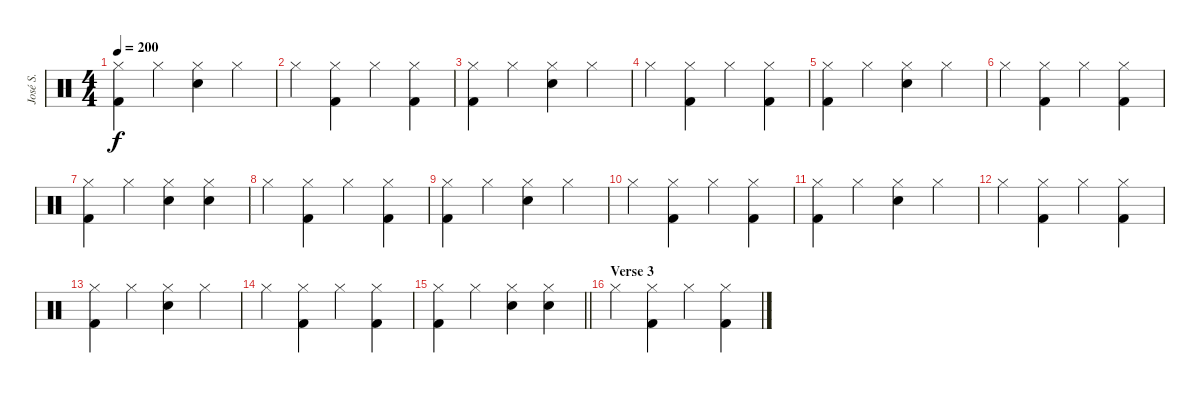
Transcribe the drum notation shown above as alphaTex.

\track ("José S." "José S.") {instrument percussion}
\staff {score}
\articulation defaults
\ts (4 4)
\tempo 200
\clef neutral
\ks c
("Hi-Hat (closed)" "Kick (hit) 2").4{dy f} "Hi-Hat (closed)".4 ("Hi-Hat (closed)" "Snare (hit) 2").4 "Hi-Hat (closed)".4 |
"Hi-Hat (closed)".4 ("Hi-Hat (closed)" "Kick (hit) 2").4 "Hi-Hat (closed)".4 ("Hi-Hat (closed)" "Kick (hit) 2").4 |
("Hi-Hat (closed)" "Kick (hit) 2").4 "Hi-Hat (closed)".4 ("Hi-Hat (closed)" "Snare (hit) 2").4 "Hi-Hat (closed)".4 |
"Hi-Hat (closed)".4 ("Hi-Hat (closed)" "Kick (hit) 2").4 "Hi-Hat (closed)".4 ("Hi-Hat (closed)" "Kick (hit) 2").4 |
("Hi-Hat (closed)" "Kick (hit) 2").4 "Hi-Hat (closed)".4 ("Hi-Hat (closed)" "Snare (hit) 2").4 "Hi-Hat (closed)".4 |
"Hi-Hat (closed)".4 ("Hi-Hat (closed)" "Kick (hit) 2").4 "Hi-Hat (closed)".4 ("Hi-Hat (closed)" "Kick (hit) 2").4 |
("Hi-Hat (closed)" "Kick (hit) 2").4 "Hi-Hat (closed)".4 ("Hi-Hat (closed)" "Snare (hit) 2").4 ("Hi-Hat (closed)" "Snare (hit) 2").4 |
"Hi-Hat (closed)".4 ("Hi-Hat (closed)" "Kick (hit) 2").4 "Hi-Hat (closed)".4 ("Hi-Hat (closed)" "Kick (hit) 2").4 |
("Hi-Hat (closed)" "Kick (hit) 2").4 "Hi-Hat (closed)".4 ("Hi-Hat (closed)" "Snare (hit) 2").4 "Hi-Hat (closed)".4 |
"Hi-Hat (closed)".4 ("Hi-Hat (closed)" "Kick (hit) 2").4 "Hi-Hat (closed)".4 ("Hi-Hat (closed)" "Kick (hit) 2").4 |
("Hi-Hat (closed)" "Kick (hit) 2").4 "Hi-Hat (closed)".4 ("Hi-Hat (closed)" "Snare (hit) 2").4 "Hi-Hat (closed)".4 |
"Hi-Hat (closed)".4 ("Hi-Hat (closed)" "Kick (hit) 2").4 "Hi-Hat (closed)".4 ("Hi-Hat (closed)" "Kick (hit) 2").4 |
("Hi-Hat (closed)" "Kick (hit) 2").4 "Hi-Hat (closed)".4 ("Hi-Hat (closed)" "Snare (hit) 2").4 "Hi-Hat (closed)".4 |
"Hi-Hat (closed)".4 ("Hi-Hat (closed)" "Kick (hit) 2").4 "Hi-Hat (closed)".4 ("Hi-Hat (closed)" "Kick (hit) 2").4 |
\barLineRight lightlight
("Hi-Hat (closed)" "Kick (hit) 2").4 "Hi-Hat (closed)".4 ("Hi-Hat (closed)" "Snare (hit) 2").4 ("Hi-Hat (closed)" "Snare (hit) 2").4 |
\section ("" "Verse 3")
"Hi-Hat (closed)".4 ("Hi-Hat (closed)" "Kick (hit) 2").4 "Hi-Hat (closed)".4 ("Hi-Hat (closed)" "Kick (hit) 2").4
